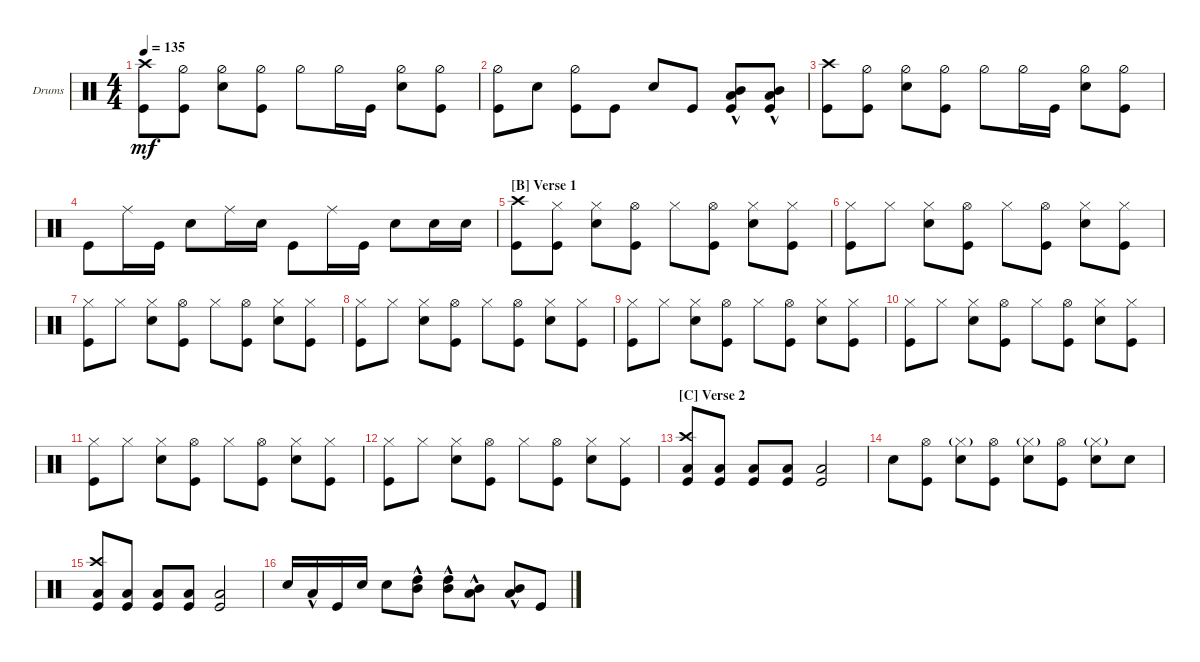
\defaultSystemsLayout 4
\bracketExtendMode groupsimilarinstruments
\firstSystemTrackNameOrientation horizontal
\otherSystemsTrackNameOrientation horizontal
\track ("Drumkit" "Drums") {instrument percussion}
\staff {score}
\articulation defaults
\ts (4 4)
\tempo 135
\clef neutral
\ks c
("Kick (hit)" "Crash high (hit)").8{dy mf} ("Hi-Hat (half)" "Kick (hit)").8 ("Hi-Hat (half)" "Snare (hit) 2").8 ("Kick (hit)" "Hi-Hat (half)").8 "Hi-Hat (half)".8 "Hi-Hat (half)".16 "Kick (hit)".16 ("Snare (hit) 2" "Hi-Hat (half)").8 ("Hi-Hat (half)" "Kick (hit)").8 |
("Hi-Hat (half)" "Kick (hit)").8 "Snare (hit) 2".8 ("Hi-Hat (half)" "Kick (hit)").8 "Kick (hit)".8 "Snare (hit) 2".8 "Kick (hit)".8 ("Mid Tom (hit)"{hac} "Low Tom (hit)"{hac} "Kick (hit)").8 ("Low Tom (hit)"{hac} "Mid Tom (hit)"{hac} "Kick (hit)").8 |
("Kick (hit)" "Crash high (hit)").8 ("Hi-Hat (half)" "Kick (hit)").8 ("Hi-Hat (half)" "Snare (hit) 2").8 ("Kick (hit)" "Hi-Hat (half)").8 "Hi-Hat (half)".8 "Hi-Hat (half)".16 "Kick (hit)".16 ("Snare (hit) 2" "Hi-Hat (half)").8 ("Hi-Hat (half)" "Kick (hit)").8 |
"Kick (hit)".8 "Ride (middle)".16 "Kick (hit)".16 "Snare (hit) 2".8 "Ride (middle)".16 "Snare (hit) 2".16 "Kick (hit)".8 "Ride (middle)".16 "Kick (hit)".16 "Snare (hit) 2".8 "Snare (hit) 2".16 "Snare (hit) 2".16 |
\section ("B" "Verse 1")
("Crash high (hit)" "Kick (hit)").8 ("Kick (hit)" "Hi-Hat (closed)").8 ("Hi-Hat (closed)" "Snare (hit) 2").8 ("Hi-Hat (open)" "Kick (hit)").8 "Hi-Hat (closed)".8 ("Kick (hit)" "Hi-Hat (open)").8 ("Snare (hit) 2" "Hi-Hat (closed)").8 ("Kick (hit)" "Hi-Hat (closed)").8 |
("Hi-Hat (closed)" "Kick (hit)").8 "Hi-Hat (closed)".8 ("Hi-Hat (closed)" "Snare (hit) 2").8 ("Hi-Hat (open)" "Kick (hit)").8 "Hi-Hat (closed)".8 ("Kick (hit)" "Hi-Hat (open)").8 ("Snare (hit) 2" "Hi-Hat (closed)").8 ("Kick (hit)" "Hi-Hat (closed)").8 |
("Hi-Hat (closed)" "Kick (hit)").8 "Hi-Hat (closed)".8 ("Hi-Hat (closed)" "Snare (hit) 2").8 ("Hi-Hat (open)" "Kick (hit)").8 "Hi-Hat (closed)".8 ("Kick (hit)" "Hi-Hat (open)").8 ("Snare (hit) 2" "Hi-Hat (closed)").8 ("Kick (hit)" "Hi-Hat (closed)").8 |
("Hi-Hat (closed)" "Kick (hit)").8 "Hi-Hat (closed)".8 ("Hi-Hat (closed)" "Snare (hit) 2").8 ("Hi-Hat (open)" "Kick (hit)").8 "Hi-Hat (closed)".8 ("Kick (hit)" "Hi-Hat (open)").8 ("Snare (hit) 2" "Hi-Hat (closed)").8 ("Kick (hit)" "Hi-Hat (closed)").8 |
("Hi-Hat (closed)" "Kick (hit)").8 "Hi-Hat (closed)".8 ("Hi-Hat (closed)" "Snare (hit) 2").8 ("Hi-Hat (open)" "Kick (hit)").8 "Hi-Hat (closed)".8 ("Kick (hit)" "Hi-Hat (open)").8 ("Snare (hit) 2" "Hi-Hat (closed)").8 ("Kick (hit)" "Hi-Hat (closed)").8 |
("Hi-Hat (closed)" "Kick (hit)").8 "Hi-Hat (closed)".8 ("Hi-Hat (closed)" "Snare (hit) 2").8 ("Hi-Hat (open)" "Kick (hit)").8 "Hi-Hat (closed)".8 ("Kick (hit)" "Hi-Hat (open)").8 ("Snare (hit) 2" "Hi-Hat (closed)").8 ("Kick (hit)" "Hi-Hat (closed)").8 |
("Hi-Hat (closed)" "Kick (hit)").8 "Hi-Hat (closed)".8 ("Hi-Hat (closed)" "Snare (hit) 2").8 ("Hi-Hat (open)" "Kick (hit)").8 "Hi-Hat (closed)".8 ("Kick (hit)" "Hi-Hat (open)").8 ("Snare (hit) 2" "Hi-Hat (closed)").8 ("Kick (hit)" "Hi-Hat (closed)").8 |
("Hi-Hat (closed)" "Kick (hit)").8 "Hi-Hat (closed)".8 ("Hi-Hat (closed)" "Snare (hit) 2").8 ("Hi-Hat (open)" "Kick (hit)").8 "Hi-Hat (closed)".8 ("Kick (hit)" "Hi-Hat (open)").8 ("Snare (hit) 2" "Hi-Hat (closed)").8 ("Kick (hit)" "Hi-Hat (closed)").8 |
\section ("C" "Verse 2")
("Kick (hit)" "Low Tom (hit)" "Crash high (hit)").8 ("Kick (hit)" "Low Tom (hit)").8 ("Kick (hit)" "Low Tom (hit)").8 ("Kick (hit)" "Low Tom (hit)").8 ("Kick (hit)" "Low Tom (hit)").2 |
"Snare (hit) 2".8 ("Hi-Hat (open)" "Kick (hit)").8 ("Snare (hit) 2" "Hi-Hat (closed)"{g}).8 ("Hi-Hat (open)" "Kick (hit)").8 ("Snare (hit) 2" "Hi-Hat (closed)"{g}).8 ("Kick (hit)" "Hi-Hat (open)").8 ("Snare (hit) 2" "Hi-Hat (closed)"{g}).8 "Snare (hit) 2".8 |
("Kick (hit)" "Low Tom (hit)" "Crash high (hit)").8 ("Kick (hit)" "Low Tom (hit)").8 ("Kick (hit)" "Low Tom (hit)").8 ("Kick (hit)" "Low Tom (hit)").8 ("Kick (hit)" "Low Tom (hit)").2 |
"Snare (hit) 2".16 "Low Tom (hit)"{hac}.16 "Kick (hit)".16 "Snare (hit) 2".16 "Snare (hit) 2".8 ("Mid Tom (hit)"{hac} "High Tom (hit)"{hac}).8 ("Mid Tom (hit)"{hac} "High Tom (hit)"{hac}).8 ("Low Tom (hit)"{hac} "Mid Tom (hit)"{hac}).8 ("Low Tom (hit)"{hac} "Mid Tom (hit)"{hac}).8 "Kick (hit)".8
